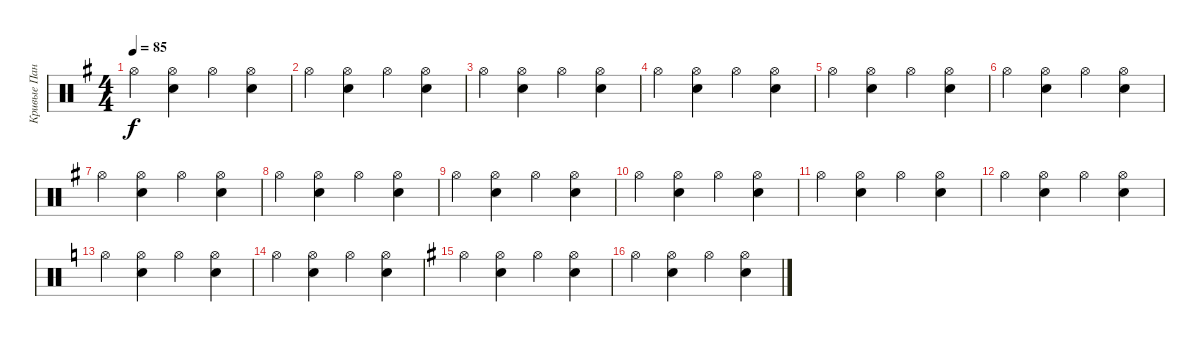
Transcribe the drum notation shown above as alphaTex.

\track ("Кривые Панковские Ударки (CPU)" "Кривые Пан") {instrument percussion}
\staff {score}
\articulation defaults
\ts (4 4)
\tempo 85
\clef neutral
\ks eminor "Hi-Hat (open)".4{dy f}
("Snare (hit) 2" "Hi-Hat (open)").4 "Hi-Hat (open)".4 ("Snare (hit) 2" "Hi-Hat (open)").4 |
"Hi-Hat (open)".4 ("Snare (hit) 2" "Hi-Hat (open)").4 "Hi-Hat (open)".4 ("Snare (hit) 2" "Hi-Hat (open)").4 |
"Hi-Hat (open)".4 ("Snare (hit) 2" "Hi-Hat (open)").4 "Hi-Hat (open)".4 ("Snare (hit) 2" "Hi-Hat (open)").4 |
"Hi-Hat (open)".4 ("Snare (hit) 2" "Hi-Hat (open)").4 "Hi-Hat (open)".4 ("Snare (hit) 2" "Hi-Hat (open)").4 |
"Hi-Hat (open)".4 ("Snare (hit) 2" "Hi-Hat (open)").4 "Hi-Hat (open)".4 ("Snare (hit) 2" "Hi-Hat (open)").4 |
"Hi-Hat (open)".4 ("Snare (hit) 2" "Hi-Hat (open)").4 "Hi-Hat (open)".4 ("Snare (hit) 2" "Hi-Hat (open)").4 |
"Hi-Hat (open)".4 ("Snare (hit) 2" "Hi-Hat (open)").4 "Hi-Hat (open)".4 ("Snare (hit) 2" "Hi-Hat (open)").4 |
"Hi-Hat (open)".4 ("Snare (hit) 2" "Hi-Hat (open)").4 "Hi-Hat (open)".4 ("Snare (hit) 2" "Hi-Hat (open)").4 |
"Hi-Hat (open)".4 ("Snare (hit) 2" "Hi-Hat (open)").4 "Hi-Hat (open)".4 ("Snare (hit) 2" "Hi-Hat (open)").4 |
"Hi-Hat (open)".4 ("Snare (hit) 2" "Hi-Hat (open)").4 "Hi-Hat (open)".4 ("Snare (hit) 2" "Hi-Hat (open)").4 |
"Hi-Hat (open)".4 ("Snare (hit) 2" "Hi-Hat (open)").4 "Hi-Hat (open)".4 ("Snare (hit) 2" "Hi-Hat (open)").4 |
"Hi-Hat (open)".4 ("Snare (hit) 2" "Hi-Hat (open)").4 "Hi-Hat (open)".4 ("Snare (hit) 2" "Hi-Hat (open)").4 |
\ks c "Hi-Hat (open)".4
("Snare (hit) 2" "Hi-Hat (open)").4 "Hi-Hat (open)".4 ("Snare (hit) 2" "Hi-Hat (open)").4 |
"Hi-Hat (open)".4 ("Snare (hit) 2" "Hi-Hat (open)").4 "Hi-Hat (open)".4 ("Snare (hit) 2" "Hi-Hat (open)").4 |
\ks eminor "Hi-Hat (open)".4
("Snare (hit) 2" "Hi-Hat (open)").4 "Hi-Hat (open)".4 ("Snare (hit) 2" "Hi-Hat (open)").4 |
"Hi-Hat (open)".4 ("Snare (hit) 2" "Hi-Hat (open)").4 "Hi-Hat (open)".4 ("Snare (hit) 2" "Hi-Hat (open)").4
